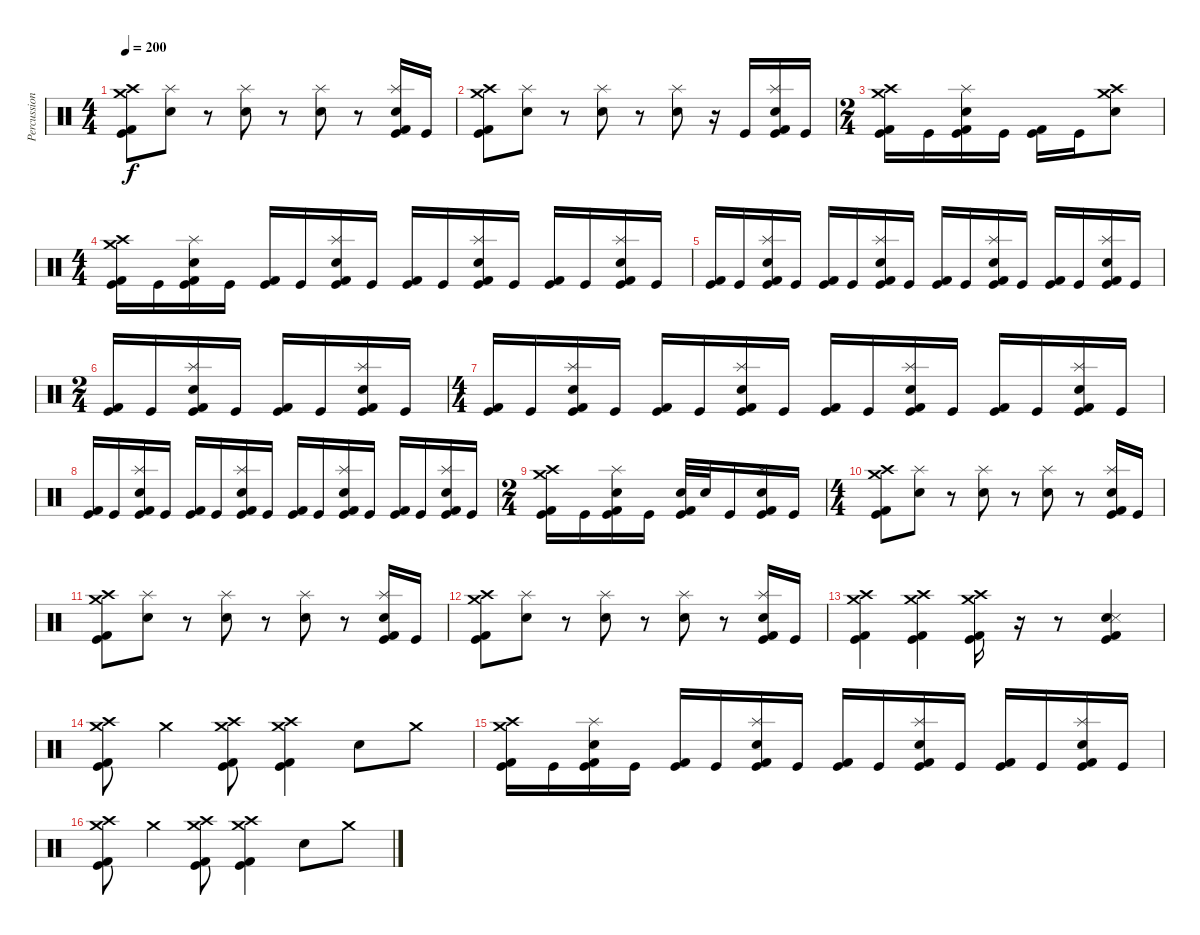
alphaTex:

\track ("Percussion" "Percussion") {instrument percussion}
\staff {score}
\articulation defaults
\ts (4 4)
\tempo 200
\clef neutral
\ks c
("Crash high (hit)" "Crash medium (hit)" "Kick (hit) 2" "Kick (hit)").8{dy f} ("Splash (hit)" "Snare (hit) 2").8 r.8 ("Splash (hit)" "Snare (hit) 2").8 r.8 ("Splash (hit)" "Snare (hit) 2").8 r.8 ("Splash (hit)" "Snare (hit) 2" "Kick (hit) 2" "Kick (hit)").16 "Kick (hit)".16 |
("Crash high (hit)" "Crash medium (hit)" "Kick (hit) 2" "Kick (hit)").8 ("Splash (hit)" "Snare (hit) 2").8 r.8 ("Splash (hit)" "Snare (hit) 2").8 r.8 ("Splash (hit)" "Snare (hit) 2").8 r.16 "Kick (hit)".16 ("Splash (hit)" "Snare (hit) 2" "Kick (hit) 2" "Kick (hit)").16 "Kick (hit)".16 |
\ts (2 4)
("Crash high (hit)" "Crash medium (hit)" "Kick (hit) 2" "Kick (hit)").16 "Kick (hit)".16 ("Splash (hit)" "Snare (hit) 2" "Kick (hit) 2" "Kick (hit)").16 "Kick (hit)".16 ("Kick (hit) 2" "Kick (hit)").16 "Kick (hit)".16 ("Crash high (hit)" "Crash medium (hit)" "Snare (hit) 2").8 |
\ts (4 4)
("Crash high (hit)" "Crash medium (hit)" "Kick (hit) 2" "Kick (hit)").16 "Kick (hit)".16 ("Splash (hit)" "Snare (hit) 2" "Kick (hit) 2" "Kick (hit)").16 "Kick (hit)".16 ("Kick (hit) 2" "Kick (hit)").16 "Kick (hit)".16 ("Splash (hit)" "Snare (hit) 2" "Kick (hit) 2" "Kick (hit)").16 "Kick (hit)".16 ("Kick (hit) 2" "Kick (hit)").16 "Kick (hit)".16 ("Splash (hit)" "Snare (hit) 2" "Kick (hit) 2" "Kick (hit)").16 "Kick (hit)".16 ("Kick (hit) 2" "Kick (hit)").16 "Kick (hit)".16 ("Splash (hit)" "Snare (hit) 2" "Kick (hit) 2" "Kick (hit)").16 "Kick (hit)".16 |
("Kick (hit) 2" "Kick (hit)").16 "Kick (hit)".16 ("Splash (hit)" "Snare (hit) 2" "Kick (hit) 2" "Kick (hit)").16 "Kick (hit)".16 ("Kick (hit) 2" "Kick (hit)").16 "Kick (hit)".16 ("Splash (hit)" "Snare (hit) 2" "Kick (hit) 2" "Kick (hit)").16 "Kick (hit)".16 ("Kick (hit) 2" "Kick (hit)").16 "Kick (hit)".16 ("Splash (hit)" "Snare (hit) 2" "Kick (hit) 2" "Kick (hit)").16 "Kick (hit)".16 ("Kick (hit) 2" "Kick (hit)").16 "Kick (hit)".16 ("Splash (hit)" "Snare (hit) 2" "Kick (hit) 2" "Kick (hit)").16 "Kick (hit)".16 |
\ts (2 4)
("Kick (hit) 2" "Kick (hit)").16 "Kick (hit)".16 ("Splash (hit)" "Snare (hit) 2" "Kick (hit) 2" "Kick (hit)").16 "Kick (hit)".16 ("Kick (hit) 2" "Kick (hit)").16 "Kick (hit)".16 ("Splash (hit)" "Snare (hit) 2" "Kick (hit) 2" "Kick (hit)").16 "Kick (hit)".16 |
\ts (4 4)
("Kick (hit) 2" "Kick (hit)").16 "Kick (hit)".16 ("Splash (hit)" "Snare (hit) 2" "Kick (hit) 2" "Kick (hit)").16 "Kick (hit)".16 ("Kick (hit) 2" "Kick (hit)").16 "Kick (hit)".16 ("Splash (hit)" "Snare (hit) 2" "Kick (hit) 2" "Kick (hit)").16 "Kick (hit)".16 ("Kick (hit) 2" "Kick (hit)").16 "Kick (hit)".16 ("Splash (hit)" "Snare (hit) 2" "Kick (hit) 2" "Kick (hit)").16 "Kick (hit)".16 ("Kick (hit) 2" "Kick (hit)").16 "Kick (hit)".16 ("Splash (hit)" "Snare (hit) 2" "Kick (hit) 2" "Kick (hit)").16 "Kick (hit)".16 |
("Kick (hit) 2" "Kick (hit)").16 "Kick (hit)".16 ("Splash (hit)" "Snare (hit) 2" "Kick (hit) 2" "Kick (hit)").16 "Kick (hit)".16 ("Kick (hit) 2" "Kick (hit)").16 "Kick (hit)".16 ("Splash (hit)" "Snare (hit) 2" "Kick (hit) 2" "Kick (hit)").16 "Kick (hit)".16 ("Kick (hit) 2" "Kick (hit)").16 "Kick (hit)".16 ("Splash (hit)" "Snare (hit) 2" "Kick (hit) 2" "Kick (hit)").16 "Kick (hit)".16 ("Kick (hit) 2" "Kick (hit)").16 "Kick (hit)".16 ("Splash (hit)" "Snare (hit) 2" "Kick (hit) 2" "Kick (hit)").16 "Kick (hit)".16 |
\ts (2 4)
("Crash high (hit)" "Crash medium (hit)" "Kick (hit) 2" "Kick (hit)").16 "Kick (hit)".16 ("Splash (hit)" "Snare (hit) 2" "Kick (hit) 2" "Kick (hit)").16 "Kick (hit)".16 ("Snare (hit) 2" "Kick (hit) 2" "Kick (hit)").32 "Snare (hit) 2".32 "Kick (hit)".16 ("Splash (hit)" "Snare (hit) 2" "Kick (hit) 2" "Kick (hit)").16 "Kick (hit)".16 |
\ts (4 4)
("Crash high (hit)" "Crash medium (hit)" "Kick (hit) 2" "Kick (hit)").8 ("Splash (hit)" "Snare (hit) 2").8 r.8 ("Splash (hit)" "Snare (hit) 2").8 r.8 ("Splash (hit)" "Snare (hit) 2").8 r.8 ("Splash (hit)" "Snare (hit) 2" "Kick (hit) 2" "Kick (hit)").16 "Kick (hit)".16 |
("Crash high (hit)" "Crash medium (hit)" "Kick (hit) 2" "Kick (hit)").8 ("Splash (hit)" "Snare (hit) 2").8 r.8 ("Splash (hit)" "Snare (hit) 2").8 r.8 ("Splash (hit)" "Snare (hit) 2").8 r.8 ("Splash (hit)" "Snare (hit) 2" "Kick (hit) 2" "Kick (hit)").16 "Kick (hit)".16 |
("Crash high (hit)" "Crash medium (hit)" "Kick (hit) 2" "Kick (hit)").8 ("Splash (hit)" "Snare (hit) 2").8 r.8 ("Splash (hit)" "Snare (hit) 2").8 r.8 ("Splash (hit)" "Snare (hit) 2").8 r.8 ("Splash (hit)" "Snare (hit) 2" "Kick (hit) 2" "Kick (hit)").16 "Kick (hit)".16 |
("Crash high (hit)" "Crash medium (hit)" "Kick (hit) 2" "Kick (hit)").4 ("Crash high (hit)" "Crash medium (hit)" "Kick (hit) 2" "Kick (hit)").4 ("Crash high (hit)" "Crash medium (hit)" "Kick (hit) 2" "Kick (hit)").16 r.16 r.8 ("Snare (hit) 2" "Snare (side stick) 3" "Kick (hit) 2" "Kick (hit)").4 |
("Crash high (hit)" "Crash medium (hit)" "Kick (hit) 2" "Kick (hit)").8 "Crash medium (hit)".4 ("Crash high (hit)" "Crash medium (hit)" "Kick (hit) 2" "Kick (hit)").8 ("Crash high (hit)" "Crash medium (hit)" "Kick (hit) 2" "Kick (hit)").4 "Snare (hit) 2".8 "Crash medium (hit)".8 |
("Crash high (hit)" "Crash medium (hit)" "Kick (hit) 2" "Kick (hit)").16 "Kick (hit)".16 ("Splash (hit)" "Snare (hit) 2" "Kick (hit) 2" "Kick (hit)").16 "Kick (hit)".16 ("Kick (hit) 2" "Kick (hit)").16 "Kick (hit)".16 ("Splash (hit)" "Snare (hit) 2" "Kick (hit) 2" "Kick (hit)").16 "Kick (hit)".16 ("Kick (hit) 2" "Kick (hit)").16 "Kick (hit)".16 ("Splash (hit)" "Snare (hit) 2" "Kick (hit) 2" "Kick (hit)").16 "Kick (hit)".16 ("Kick (hit) 2" "Kick (hit)").16 "Kick (hit)".16 ("Splash (hit)" "Snare (hit) 2" "Kick (hit) 2" "Kick (hit)").16 "Kick (hit)".16 |
("Crash high (hit)" "Crash medium (hit)" "Kick (hit) 2" "Kick (hit)").8 "Crash medium (hit)".4 ("Crash high (hit)" "Crash medium (hit)" "Kick (hit) 2" "Kick (hit)").8 ("Crash high (hit)" "Crash medium (hit)" "Kick (hit) 2" "Kick (hit)").4 "Snare (hit) 2".8 "Crash medium (hit)".8
